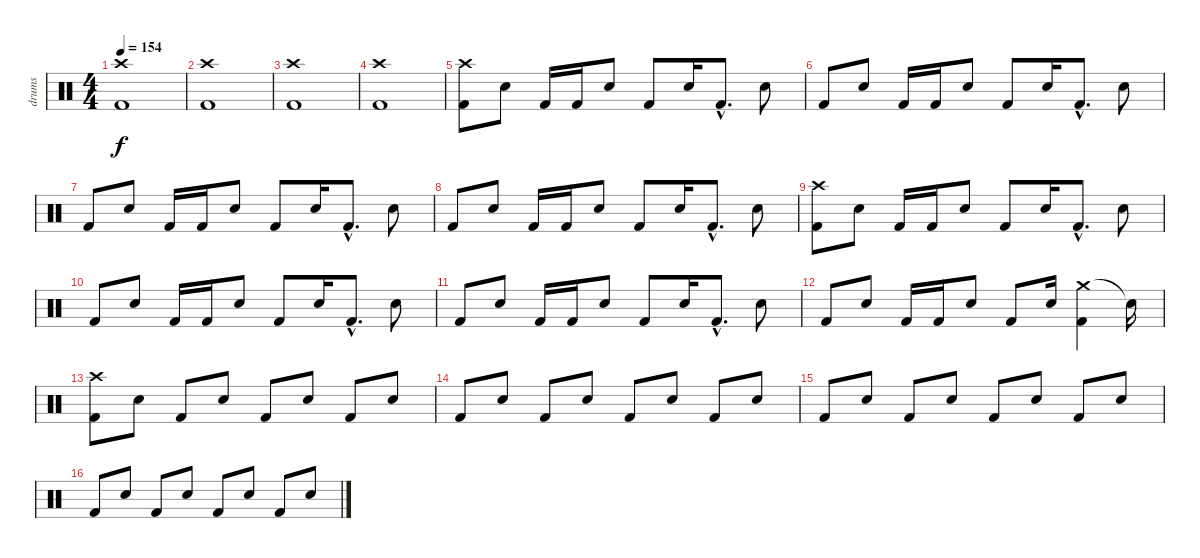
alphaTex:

\track ("drums" "drums") {instrument percussion}
\staff {score}
\articulation defaults
\ts (4 4)
\tempo 154
\clef neutral
\ks c
("Crash high (hit)" "Kick (hit) 2").1{dy f} |
("Crash high (hit)" "Kick (hit) 2").1 |
("Crash high (hit)" "Kick (hit) 2").1 |
("Crash high (hit)" "Kick (hit) 2").1 |
("Crash high (hit)" "Kick (hit) 2").8 "Snare (hit) 2".8 "Kick (hit) 2".16 "Kick (hit) 2".16 "Snare (hit) 2".8 "Kick (hit) 2".8 "Snare (hit) 2".16 "Kick (hit) 2"{hac}.8{d} "Snare (hit) 2".8 |
"Kick (hit) 2".8 "Snare (hit) 2".8 "Kick (hit) 2".16 "Kick (hit) 2".16 "Snare (hit) 2".8 "Kick (hit) 2".8 "Snare (hit) 2".16 "Kick (hit) 2"{hac}.8{d} "Snare (hit) 2".8 |
"Kick (hit) 2".8 "Snare (hit) 2".8 "Kick (hit) 2".16 "Kick (hit) 2".16 "Snare (hit) 2".8 "Kick (hit) 2".8 "Snare (hit) 2".16 "Kick (hit) 2"{hac}.8{d} "Snare (hit) 2".8 |
"Kick (hit) 2".8 "Snare (hit) 2".8 "Kick (hit) 2".16 "Kick (hit) 2".16 "Snare (hit) 2".8 "Kick (hit) 2".8 "Snare (hit) 2".16 "Kick (hit) 2"{hac}.8{d} "Snare (hit) 2".8 |
("Crash high (hit)" "Kick (hit) 2").8 "Snare (hit) 2".8 "Kick (hit) 2".16 "Kick (hit) 2".16 "Snare (hit) 2".8 "Kick (hit) 2".8 "Snare (hit) 2".16 "Kick (hit) 2"{hac}.8{d} "Snare (hit) 2".8 |
"Kick (hit) 2".8 "Snare (hit) 2".8 "Kick (hit) 2".16 "Kick (hit) 2".16 "Snare (hit) 2".8 "Kick (hit) 2".8 "Snare (hit) 2".16 "Kick (hit) 2"{hac}.8{d} "Snare (hit) 2".8 |
"Kick (hit) 2".8 "Snare (hit) 2".8 "Kick (hit) 2".16 "Kick (hit) 2".16 "Snare (hit) 2".8 "Kick (hit) 2".8 "Snare (hit) 2".16 "Kick (hit) 2"{hac}.8{d} "Snare (hit) 2".8 |
"Kick (hit) 2".8 "Snare (hit) 2".8 "Kick (hit) 2".16 "Kick (hit) 2".16 "Snare (hit) 2".8 "Kick (hit) 2".8 "Snare (hit) 2".16 ("Crash medium (hit)" "Kick (hit) 2").4 "Snare (hit)"{t}.16 |
("Crash high (hit)" "Kick (hit) 2").8 "Snare (hit) 2".8 "Kick (hit) 2".8 "Snare (hit) 2".8 "Kick (hit) 2".8 "Snare (hit) 2".8 "Kick (hit) 2".8 "Snare (hit) 2".8 |
"Kick (hit) 2".8 "Snare (hit) 2".8 "Kick (hit) 2".8 "Snare (hit) 2".8 "Kick (hit) 2".8 "Snare (hit) 2".8 "Kick (hit) 2".8 "Snare (hit) 2".8 |
"Kick (hit) 2".8 "Snare (hit) 2".8 "Kick (hit) 2".8 "Snare (hit) 2".8 "Kick (hit) 2".8 "Snare (hit) 2".8 "Kick (hit) 2".8 "Snare (hit) 2".8 |
"Kick (hit) 2".8 "Snare (hit) 2".8 "Kick (hit) 2".8 "Snare (hit) 2".8 "Kick (hit) 2".8 "Snare (hit) 2".8 "Kick (hit) 2".8 "Snare (hit) 2".8
